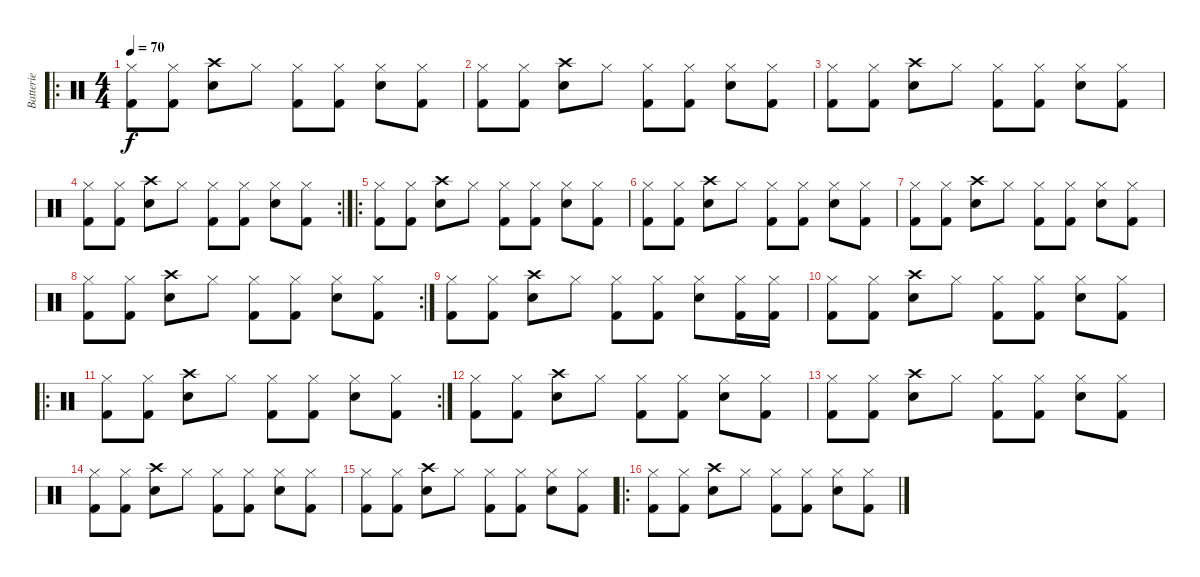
\track ("Batterie" "Batterie") {instrument percussion}
\staff {score}
\articulation defaults
\ro
\ts (4 4)
\tempo 70
\clef neutral
\ks c
("Kick (hit) 2" "Hi-Hat (closed)").8{dy f} ("Kick (hit) 2" "Hi-Hat (closed)").8 ("Snare (hit) 2" "Crash high (hit)").8 "Hi-Hat (closed)".8 ("Kick (hit) 2" "Hi-Hat (closed)").8 ("Kick (hit) 2" "Hi-Hat (closed)").8 ("Snare (hit) 2" "Hi-Hat (closed)").8 ("Kick (hit) 2" "Hi-Hat (closed)").8 |
("Kick (hit) 2" "Hi-Hat (closed)").8 ("Kick (hit) 2" "Hi-Hat (closed)").8 ("Snare (hit) 2" "Crash high (hit)").8 "Hi-Hat (closed)".8 ("Kick (hit) 2" "Hi-Hat (closed)").8 ("Kick (hit) 2" "Hi-Hat (closed)").8 ("Snare (hit) 2" "Hi-Hat (closed)").8 ("Kick (hit) 2" "Hi-Hat (closed)").8 |
("Kick (hit) 2" "Hi-Hat (closed)").8 ("Kick (hit) 2" "Hi-Hat (closed)").8 ("Snare (hit) 2" "Crash high (hit)").8 "Hi-Hat (closed)".8 ("Kick (hit) 2" "Hi-Hat (closed)").8 ("Kick (hit) 2" "Hi-Hat (closed)").8 ("Snare (hit) 2" "Hi-Hat (closed)").8 ("Kick (hit) 2" "Hi-Hat (closed)").8 |
\rc 2
("Kick (hit) 2" "Hi-Hat (closed)").8 ("Kick (hit) 2" "Hi-Hat (closed)").8 ("Snare (hit) 2" "Crash high (hit)").8 "Hi-Hat (closed)".8 ("Kick (hit) 2" "Hi-Hat (closed)").8 ("Kick (hit) 2" "Hi-Hat (closed)").8 ("Snare (hit) 2" "Hi-Hat (closed)").8 ("Kick (hit) 2" "Hi-Hat (closed)").8 |
\ro
("Kick (hit) 2" "Hi-Hat (closed)").8 ("Kick (hit) 2" "Hi-Hat (closed)").8 ("Snare (hit) 2" "Crash high (hit)").8 "Hi-Hat (closed)".8 ("Kick (hit) 2" "Hi-Hat (closed)").8 ("Kick (hit) 2" "Hi-Hat (closed)").8 ("Snare (hit) 2" "Hi-Hat (closed)").8 ("Kick (hit) 2" "Hi-Hat (closed)").8 |
("Kick (hit) 2" "Hi-Hat (closed)").8 ("Kick (hit) 2" "Hi-Hat (closed)").8 ("Snare (hit) 2" "Crash high (hit)").8 "Hi-Hat (closed)".8 ("Kick (hit) 2" "Hi-Hat (closed)").8 ("Kick (hit) 2" "Hi-Hat (closed)").8 ("Snare (hit) 2" "Hi-Hat (closed)").8 ("Kick (hit) 2" "Hi-Hat (closed)").8 |
("Kick (hit) 2" "Hi-Hat (closed)").8 ("Kick (hit) 2" "Hi-Hat (closed)").8 ("Snare (hit) 2" "Crash high (hit)").8 "Hi-Hat (closed)".8 ("Kick (hit) 2" "Hi-Hat (closed)").8 ("Kick (hit) 2" "Hi-Hat (closed)").8 ("Snare (hit) 2" "Hi-Hat (closed)").8 ("Kick (hit) 2" "Hi-Hat (closed)").8 |
\rc 2
("Kick (hit) 2" "Hi-Hat (closed)").8 ("Kick (hit) 2" "Hi-Hat (closed)").8 ("Snare (hit) 2" "Crash high (hit)").8 "Hi-Hat (closed)".8 ("Kick (hit) 2" "Hi-Hat (closed)").8 ("Kick (hit) 2" "Hi-Hat (closed)").8 ("Snare (hit) 2" "Hi-Hat (closed)").8 ("Kick (hit) 2" "Hi-Hat (closed)").8 |
("Kick (hit) 2" "Hi-Hat (closed)").8 ("Kick (hit) 2" "Hi-Hat (closed)").8 ("Snare (hit) 2" "Crash high (hit)").8 "Hi-Hat (closed)".8 ("Kick (hit) 2" "Hi-Hat (closed)").8 ("Kick (hit) 2" "Hi-Hat (closed)").8 ("Snare (hit) 2" "Hi-Hat (closed)").8 ("Kick (hit) 2" "Hi-Hat (closed)").16 ("Kick (hit) 2" "Hi-Hat (closed)").16 |
("Kick (hit) 2" "Hi-Hat (closed)").8 ("Kick (hit) 2" "Hi-Hat (closed)").8 ("Snare (hit) 2" "Crash high (hit)").8 "Hi-Hat (closed)".8 ("Kick (hit) 2" "Hi-Hat (closed)").8 ("Kick (hit) 2" "Hi-Hat (closed)").8 ("Snare (hit) 2" "Hi-Hat (closed)").8 ("Kick (hit) 2" "Hi-Hat (closed)").8 |
\ro
\rc 2
("Kick (hit) 2" "Hi-Hat (closed)").8 ("Kick (hit) 2" "Hi-Hat (closed)").8 ("Snare (hit) 2" "Crash high (hit)").8 "Hi-Hat (closed)".8 ("Kick (hit) 2" "Hi-Hat (closed)").8 ("Kick (hit) 2" "Hi-Hat (closed)").8 ("Snare (hit) 2" "Hi-Hat (closed)").8 ("Kick (hit) 2" "Hi-Hat (closed)").8 |
("Kick (hit) 2" "Hi-Hat (closed)").8 ("Kick (hit) 2" "Hi-Hat (closed)").8 ("Snare (hit) 2" "Crash high (hit)").8 "Hi-Hat (closed)".8 ("Kick (hit) 2" "Hi-Hat (closed)").8 ("Kick (hit) 2" "Hi-Hat (closed)").8 ("Snare (hit) 2" "Hi-Hat (closed)").8 ("Kick (hit) 2" "Hi-Hat (closed)").8 |
("Kick (hit) 2" "Hi-Hat (closed)").8 ("Kick (hit) 2" "Hi-Hat (closed)").8 ("Snare (hit) 2" "Crash high (hit)").8 "Hi-Hat (closed)".8 ("Kick (hit) 2" "Hi-Hat (closed)").8 ("Kick (hit) 2" "Hi-Hat (closed)").8 ("Snare (hit) 2" "Hi-Hat (closed)").8 ("Kick (hit) 2" "Hi-Hat (closed)").8 |
("Kick (hit) 2" "Hi-Hat (closed)").8 ("Kick (hit) 2" "Hi-Hat (closed)").8 ("Snare (hit) 2" "Crash high (hit)").8 "Hi-Hat (closed)".8 ("Kick (hit) 2" "Hi-Hat (closed)").8 ("Kick (hit) 2" "Hi-Hat (closed)").8 ("Snare (hit) 2" "Hi-Hat (closed)").8 ("Kick (hit) 2" "Hi-Hat (closed)").8 |
("Kick (hit) 2" "Hi-Hat (closed)").8 ("Kick (hit) 2" "Hi-Hat (closed)").8 ("Snare (hit) 2" "Crash high (hit)").8 "Hi-Hat (closed)".8 ("Kick (hit) 2" "Hi-Hat (closed)").8 ("Kick (hit) 2" "Hi-Hat (closed)").8 ("Snare (hit) 2" "Hi-Hat (closed)").8 ("Kick (hit) 2" "Hi-Hat (closed)").8 |
\ro
("Kick (hit) 2" "Hi-Hat (closed)").8 ("Kick (hit) 2" "Hi-Hat (closed)").8 ("Snare (hit) 2" "Crash high (hit)").8 "Hi-Hat (closed)".8 ("Kick (hit) 2" "Hi-Hat (closed)").8 ("Kick (hit) 2" "Hi-Hat (closed)").8 ("Snare (hit) 2" "Hi-Hat (closed)").8 ("Kick (hit) 2" "Hi-Hat (closed)").8
